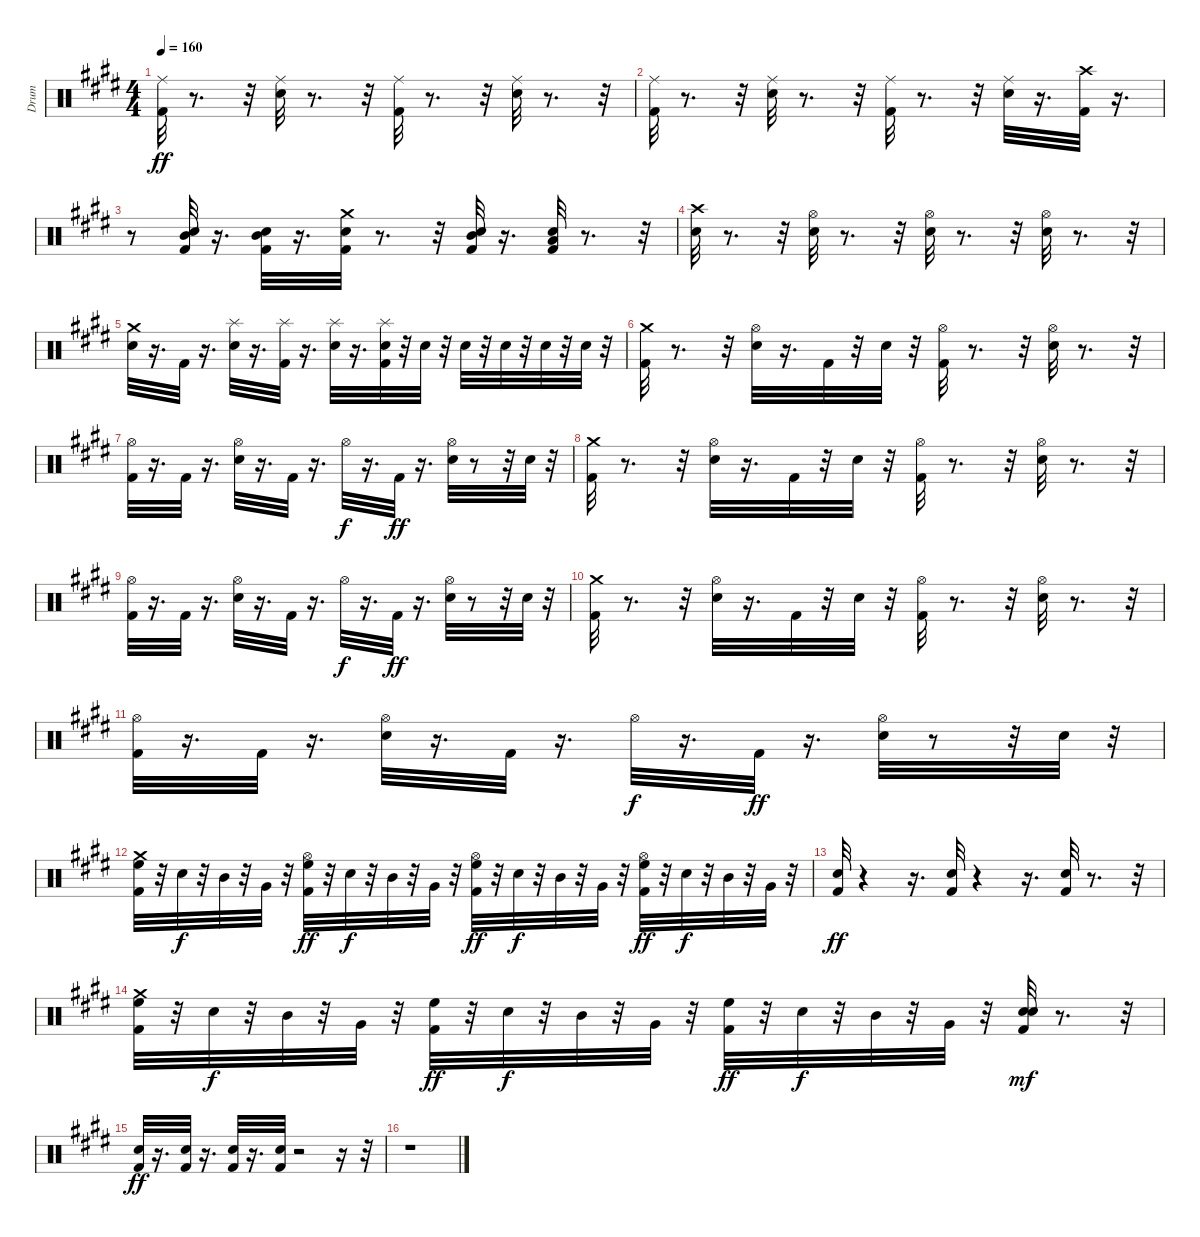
\track ("Drum" "Drum") {instrument percussion}
\staff {score}
\articulation defaults
\ts (4 4)
\tempo 160
\clef neutral
\ks e
("Kick (hit) 2" "Ride (middle)").32{dy ff} r.8{d} r.32 ("Electric Snare (hit)" "Ride (middle)").32 r.8{d} r.32 ("Kick (hit) 2" "Ride (middle)").32 r.8{d} r.32 ("Electric Snare (hit)" "Ride (middle)").32 r.8{d} r.32 |
("Kick (hit) 2" "Ride (middle)").32 r.8{d} r.32 ("Electric Snare (hit)" "Ride (middle)").32 r.8{d} r.32 ("Kick (hit) 2" "Ride (middle)").32 r.8{d} r.32 ("Electric Snare (hit)" "Ride (middle)").32 r.16{d} ("Crash high (hit)" "Kick (hit) 2").32 r.16{d} |
r.8 ("Mid Tom (hit)" "Kick (hit) 2" "Electric Snare (hit)").32 r.16{d} ("Mid Tom (hit)" "Kick (hit) 2" "Electric Snare (hit)").32 r.16{d} ("Crash medium (hit)" "Kick (hit) 2" "Electric Snare (hit)").32 r.8{d} r.32 ("Mid Tom (hit)" "Kick (hit) 2" "Electric Snare (hit)").32 r.16{d} ("Kick (hit) 2" "Low Tom (hit)" "Electric Snare (hit)").32 r.8{d} r.32 |
("Crash high (hit)" "Electric Snare (hit)").32 r.8{d} r.32 ("Electric Snare (hit)" "Hi-Hat (open)").32 r.8{d} r.32 ("Electric Snare (hit)" "Hi-Hat (open)").32 r.8{d} r.32 ("Electric Snare (hit)" "Hi-Hat (open)").32 r.8{d} r.32 |
("Crash medium (hit)" "Electric Snare (hit)").32 r.16{d} "Kick (hit) 2".32 r.16{d} ("Splash (hit)" "Electric Snare (hit)").32 r.16{d} ("Splash (hit)" "Kick (hit) 2").32 r.16{d} ("Splash (hit)" "Electric Snare (hit)").32 r.16{d} ("Splash (hit)" "Kick (hit) 2" "Electric Snare (hit)").32 r.32 "Electric Snare (hit)".32 r.32 "Electric Snare (hit)".32 r.32 "Electric Snare (hit)".32 r.32 "Electric Snare (hit)".32 r.32 "Electric Snare (hit)".32 r.32 |
("Crash medium (hit)" "Kick (hit) 2").32 r.8{d} r.32 ("Electric Snare (hit)" "Hi-Hat (open)").32 r.16{d} "Kick (hit) 2".32 r.32 "Electric Snare (hit)".32 r.32 ("Kick (hit) 2" "Hi-Hat (open)").32 r.8{d} r.32 ("Electric Snare (hit)" "Hi-Hat (open)").32 r.8{d} r.32 |
("Kick (hit) 2" "Hi-Hat (open)").32 r.16{d} "Kick (hit) 2".32 r.16{d} ("Electric Snare (hit)" "Hi-Hat (open)").32 r.16{d} "Kick (hit) 2".32 r.16{d} "Hi-Hat (open)".32{dy f} r.16{d} "Kick (hit) 2".32{dy ff} r.16{d} ("Electric Snare (hit)" "Hi-Hat (open)").32 r.8 r.32 "Electric Snare (hit)".32 r.32 |
("Crash medium (hit)" "Kick (hit) 2").32 r.8{d} r.32 ("Electric Snare (hit)" "Hi-Hat (open)").32 r.16{d} "Kick (hit) 2".32 r.32 "Electric Snare (hit)".32 r.32 ("Kick (hit) 2" "Hi-Hat (open)").32 r.8{d} r.32 ("Electric Snare (hit)" "Hi-Hat (open)").32 r.8{d} r.32 |
("Kick (hit) 2" "Hi-Hat (open)").32 r.16{d} "Kick (hit) 2".32 r.16{d} ("Electric Snare (hit)" "Hi-Hat (open)").32 r.16{d} "Kick (hit) 2".32 r.16{d} "Hi-Hat (open)".32{dy f} r.16{d} "Kick (hit) 2".32{dy ff} r.16{d} ("Electric Snare (hit)" "Hi-Hat (open)").32 r.8 r.32 "Electric Snare (hit)".32 r.32 |
("Crash medium (hit)" "Kick (hit) 2").32 r.8{d} r.32 ("Electric Snare (hit)" "Hi-Hat (open)").32 r.16{d} "Kick (hit) 2".32 r.32 "Electric Snare (hit)".32 r.32 ("Kick (hit) 2" "Hi-Hat (open)").32 r.8{d} r.32 ("Electric Snare (hit)" "Hi-Hat (open)").32 r.8{d} r.32 |
("Kick (hit) 2" "Hi-Hat (open)").32 r.16{d} "Kick (hit) 2".32 r.16{d} ("Electric Snare (hit)" "Hi-Hat (open)").32 r.16{d} "Kick (hit) 2".32 r.16{d} "Hi-Hat (open)".32{dy f} r.16{d} "Kick (hit) 2".32{dy ff} r.16{d} ("Electric Snare (hit)" "Hi-Hat (open)").32 r.8 r.32 "Electric Snare (hit)".32 r.32 |
("High Floor Tom (hit)" "Crash medium (hit)" "Kick (hit) 2").32 r.32 "Electric Snare (hit)".32{dy f} r.32 "Mid Tom (hit)".32 r.32 "Very Low Tom (hit)".32 r.32 ("High Floor Tom (hit)" "Kick (hit) 2" "Hi-Hat (open)").32{dy ff} r.32 "Electric Snare (hit)".32{dy f} r.32 "Mid Tom (hit)".32 r.32 "Very Low Tom (hit)".32 r.32 ("High Floor Tom (hit)" "Kick (hit) 2" "Hi-Hat (open)").32{dy ff} r.32 "Electric Snare (hit)".32{dy f} r.32 "Mid Tom (hit)".32 r.32 "Very Low Tom (hit)".32 r.32 ("High Floor Tom (hit)" "Kick (hit) 2" "Hi-Hat (open)").32{dy ff} r.32 "Electric Snare (hit)".32{dy f} r.32 "Mid Tom (hit)".32 r.32 "Very Low Tom (hit)".32 r.32 |
("Kick (hit) 2" "Electric Snare (hit)").32{dy ff} r.4 r.16{d} ("Kick (hit) 2" "Electric Snare (hit)").32 r.4 r.16{d} ("Kick (hit) 2" "Electric Snare (hit)").32 r.8{d} r.32 |
("High Floor Tom (hit)" "Crash medium (hit)" "Kick (hit) 2").32 r.32 "Electric Snare (hit)".32{dy f} r.32 "Mid Tom (hit)".32 r.32 "Very Low Tom (hit)".32 r.32 ("High Floor Tom (hit)" "Kick (hit) 2").32{dy ff} r.32 "Electric Snare (hit)".32{dy f} r.32 "Mid Tom (hit)".32 r.32 "Very Low Tom (hit)".32 r.32 ("High Floor Tom (hit)" "Kick (hit) 2").32{dy ff} r.32 "Electric Snare (hit)".32{dy f} r.32 "Mid Tom (hit)".32 r.32 "Very Low Tom (hit)".32 r.32 ("Kick (hit) 2" "Electric Snare (hit)" "Electric Snare (hit)").32{dy mf} r.8{d} r.32 |
("Kick (hit) 2" "Electric Snare (hit)").32{dy ff} r.16{d} ("Kick (hit) 2" "Electric Snare (hit)").32 r.16{d} ("Kick (hit) 2" "Electric Snare (hit)").32 r.16{d} ("Kick (hit) 2" "Electric Snare (hit)").32 r.2 r.16 r.32 |
r.1
